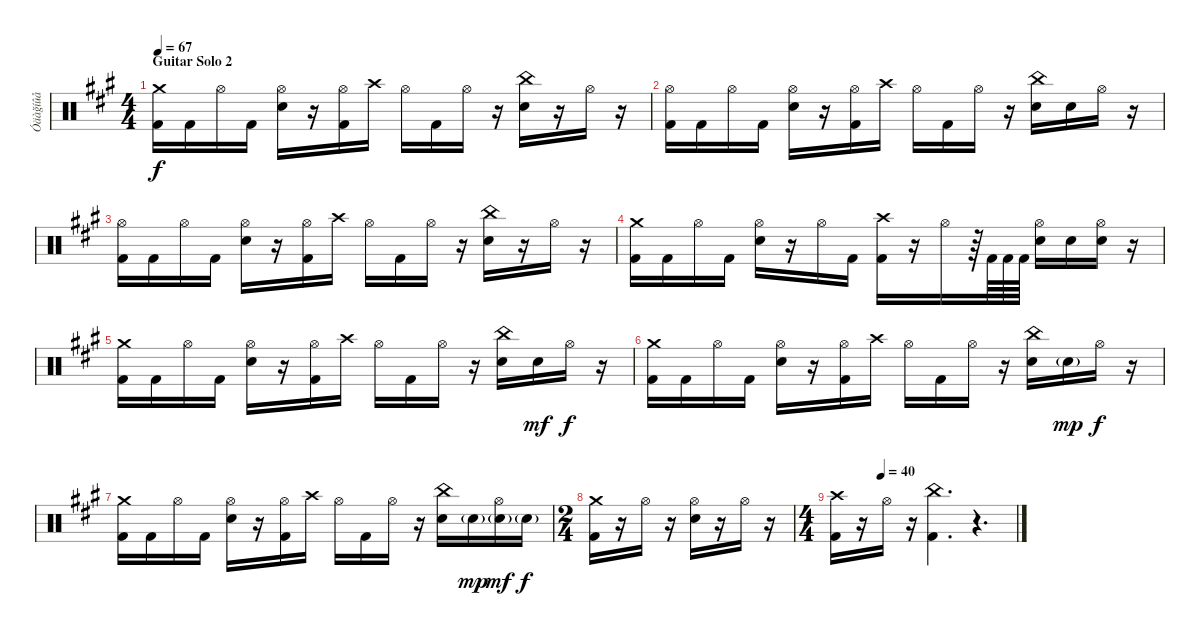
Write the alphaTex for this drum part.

\track ("Óäàğíûå" "Óäàğíûå") {instrument percussion}
\staff {score}
\articulation defaults
\ts (4 4)
\section ("" "Guitar Solo 2")
\tempo 67
\clef neutral
\ks a
("Crash medium (hit)" "Kick (hit) 2").16{dy f} "Kick (hit) 2".16 "Hi-Hat (open)".16 "Kick (hit) 2".16 ("Hi-Hat (open)" "Electric Snare (hit)").16 r.16 ("Hi-Hat (open)" "Kick (hit) 2").16 "Crash high (hit)".16 "Hi-Hat (open)".16 "Kick (hit) 2".16 "Hi-Hat (open)".16 r.16 ("China (hit)" "Electric Snare (hit)").16 r.16 "Hi-Hat (open)".16 r.16 |
("Hi-Hat (open)" "Kick (hit) 2").16 "Kick (hit) 2".16 "Hi-Hat (open)".16 "Kick (hit) 2".16 ("Hi-Hat (open)" "Electric Snare (hit)").16 r.16 ("Hi-Hat (open)" "Kick (hit) 2").16 "Crash high (hit)".16 "Hi-Hat (open)".16 "Kick (hit) 2".16 "Hi-Hat (open)".16 r.16 ("China (hit)" "Electric Snare (hit)").16 "Electric Snare (hit)".16 "Hi-Hat (open)".16 r.16 |
("Hi-Hat (open)" "Kick (hit) 2").16 "Kick (hit) 2".16 "Hi-Hat (open)".16 "Kick (hit) 2".16 ("Hi-Hat (open)" "Electric Snare (hit)").16 r.16 ("Hi-Hat (open)" "Kick (hit) 2").16 "Crash high (hit)".16 "Hi-Hat (open)".16 "Kick (hit) 2".16 "Hi-Hat (open)".16 r.16 ("China (hit)" "Electric Snare (hit)").16 r.16 "Hi-Hat (open)".16 r.16 |
("Crash medium (hit)" "Kick (hit) 2").16 "Kick (hit) 2".16 "Hi-Hat (open)".16 "Kick (hit) 2".16 ("Hi-Hat (open)" "Electric Snare (hit)").16 r.16 "Hi-Hat (open)".16 "Kick (hit) 2".16 ("Crash high (hit)" "Kick (hit) 2").16 r.16 "Hi-Hat (open)".16 r.64 "Kick (hit) 2".64 "Kick (hit) 2".64 "Kick (hit) 2".64 ("Hi-Hat (open)" "Electric Snare (hit)").16 "Electric Snare (hit)".16 ("Hi-Hat (open)" "Electric Snare (hit)").16 r.16 |
("Crash medium (hit)" "Kick (hit) 2").16 "Kick (hit) 2".16 "Hi-Hat (open)".16 "Kick (hit) 2".16 ("Hi-Hat (open)" "Electric Snare (hit)").16 r.16 ("Hi-Hat (open)" "Kick (hit) 2").16 "Crash high (hit)".16 "Hi-Hat (open)".16 "Kick (hit) 2".16 "Hi-Hat (open)".16 r.16 ("China (hit)" "Electric Snare (hit)").16 "Electric Snare (hit)".16{dy mf} "Hi-Hat (open)".16{dy f} r.16 |
("Crash medium (hit)" "Kick (hit) 2").16 "Kick (hit) 2".16 "Hi-Hat (open)".16 "Kick (hit) 2".16 ("Hi-Hat (open)" "Electric Snare (hit)").16 r.16 ("Hi-Hat (open)" "Kick (hit) 2").16 "Crash high (hit)".16 "Hi-Hat (open)".16 "Kick (hit) 2".16 "Hi-Hat (open)".16 r.16 ("China (hit)" "Electric Snare (hit)").16 "Electric Snare (hit)"{g}.16{dy mp} "Hi-Hat (open)".16{dy f} r.16 |
("Crash medium (hit)" "Kick (hit) 2").16 "Kick (hit) 2".16 "Hi-Hat (open)".16 "Kick (hit) 2".16 ("Hi-Hat (open)" "Electric Snare (hit)").16 r.16 ("Hi-Hat (open)" "Kick (hit) 2").16 "Crash high (hit)".16 "Hi-Hat (open)".16 "Kick (hit) 2".16 "Hi-Hat (open)".16 r.16 ("China (hit)" "Electric Snare (hit)").16 "Electric Snare (hit)"{g}.16{dy mp} ("Hi-Hat (open)" "Electric Snare (hit)"{g}).16{dy mf} "Electric Snare (hit)"{g}.16{dy f} |
\ts (2 4)
("Crash medium (hit)" "Kick (hit) 2").16 r.16 "Hi-Hat (open)".16 r.16 ("Hi-Hat (open)" "Electric Snare (hit)").16 r.16 "Hi-Hat (open)".16 r.16 |
\ts (4 4)
\tempo (40 0.25)
("Crash high (hit)" "Kick (hit) 2").16 r.16 "Hi-Hat (open)".16 r.16 ("China (hit)" "Kick (hit) 2").4{d} r.4{d}
